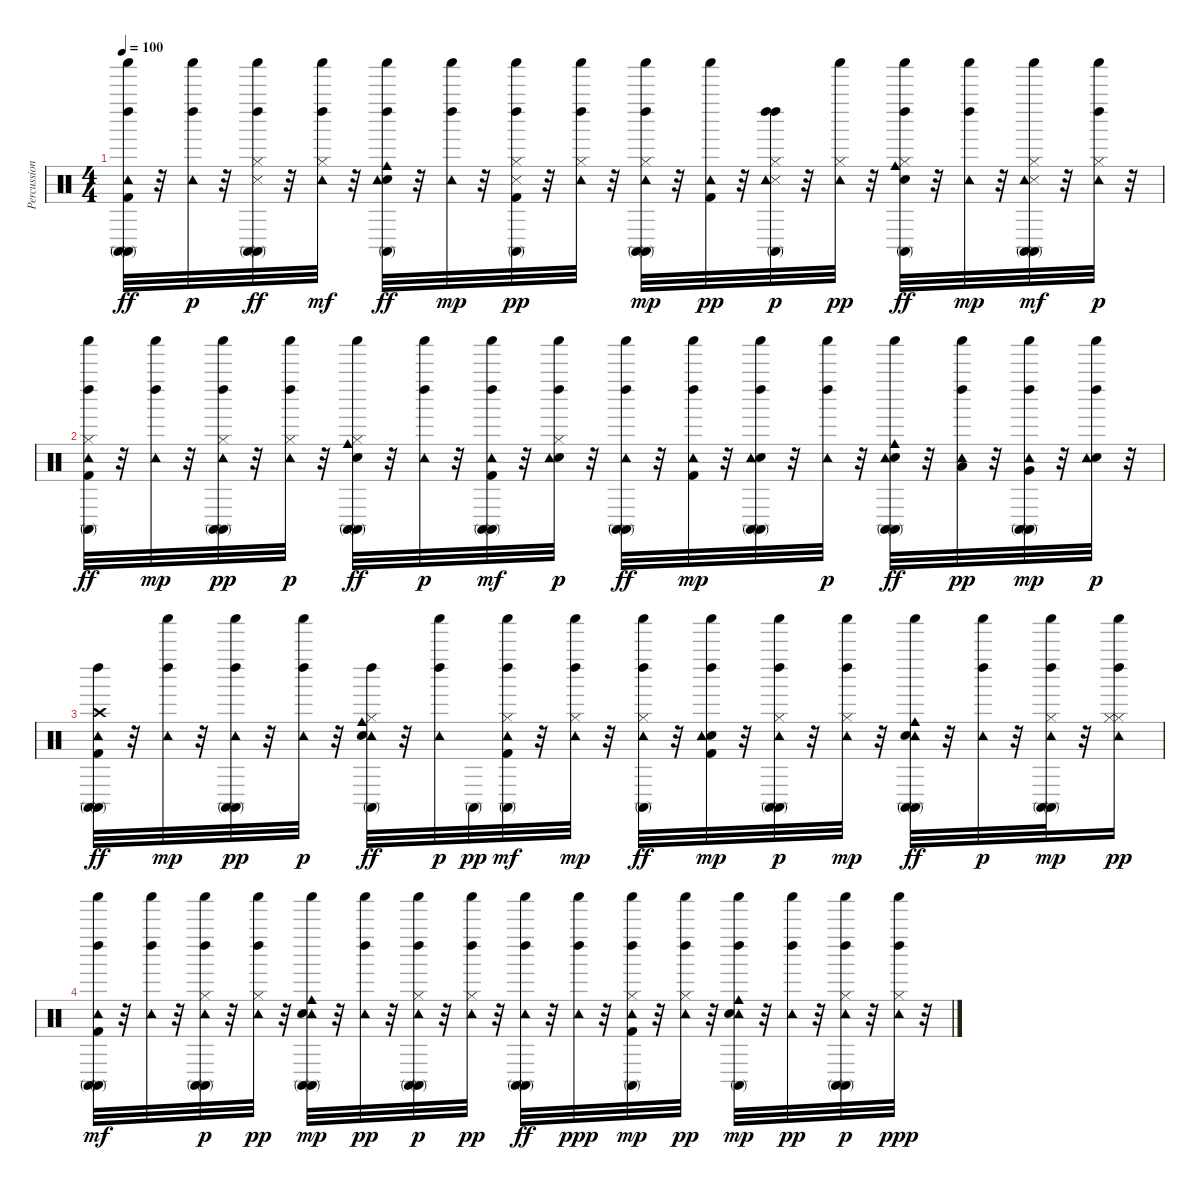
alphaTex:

\track ("Percussions" "Percussion") {instrument percussion}
\staff {score}
\articulation defaults
\ts (4 4)
\tempo 100
\clef neutral
\ks c
("Conga high (mute)" "Conga high (mute)" "Shaker (hit)" "Kick (hit) 2" "Tambourine (hit)" "Left Maraca (hit)").32{dy ff} r.32 ("Tambourine (hit)" "Shaker (hit)" "Left Maraca (hit)").32{dy p} r.32 ("Conga high (mute)" "Conga high (mute)" "Left Maraca (hit)" "Hi-Hat (closed)" "Shaker (hit)" "Snare (side stick) 3").32{dy ff} r.32 ("Hi-Hat (closed)" "Tambourine (hit)" "Shaker (hit)" "Left Maraca (hit)").32{dy mf} r.32 ("Electric Snare (hit)" "Cowbell medium (hit)" "Conga high (mute)" "Tambourine (hit)" "Shaker (hit)" "Left Maraca (hit)").32{dy ff} r.32 ("Shaker (hit)" "Tambourine (hit)" "Left Maraca (hit)").32{dy mp} r.32 ("Conga high (mute)" "Kick (hit) 2" "Snare (side stick) 3" "Hi-Hat (closed)" "Left Maraca (hit)" "Shaker (hit)").32{dy pp} r.32 ("Hi-Hat (closed)" "Tambourine (hit)" "Shaker (hit)" "Left Maraca (hit)").32 r.32 ("Hi-Hat (closed)" "Conga high (mute)" "Shaker (hit)" "Tambourine (hit)" "Left Maraca (hit)" "Conga high (mute)").32{dy mp} r.32 ("Kick (hit) 2" "Shaker (hit)" "Tambourine (hit)").32{dy pp} r.32 ("Left Maraca (hit)" "Snare (side stick) 3" "Hi-Hat (closed)" "Conga high (mute)" "Tambourine (hit)" "Left Maraca (hit)").32{dy p} r.32 ("Hi-Hat (closed)" "Tambourine (hit)" "Shaker (hit)").32{dy pp} r.32 ("Left Maraca (hit)" "Conga high (mute)" "Electric Snare (hit)" "Cowbell medium (hit)" "Hi-Hat (closed)" "Shaker (hit)").32{dy ff} r.32 ("Shaker (hit)" "Tambourine (hit)" "Left Maraca (hit)").32{dy mp} r.32 ("Conga high (mute)" "Snare (side stick) 3" "Conga high (mute)" "Hi-Hat (closed)" "Shaker (hit)" "Tambourine (hit)").32{dy mf} r.32 ("Hi-Hat (closed)" "Tambourine (hit)" "Shaker (hit)" "Left Maraca (hit)").32{dy p} r.32 |
("Conga high (mute)" "Hi-Hat (closed)" "Kick (hit) 2" "Shaker (hit)" "Tambourine (hit)" "Left Maraca (hit)").32{dy ff} r.32 ("Tambourine (hit)" "Shaker (hit)" "Left Maraca (hit)").32{dy mp} r.32 ("Conga high (mute)" "Tambourine (hit)" "Conga high (mute)" "Hi-Hat (closed)" "Shaker (hit)" "Left Maraca (hit)").32{dy pp} r.32 ("Hi-Hat (closed)" "Tambourine (hit)" "Shaker (hit)" "Left Maraca (hit)").32{dy p} r.32 ("Conga high (mute)" "Electric Snare (hit)" "Conga high (mute)" "Hi-Hat (closed)" "Cowbell medium (hit)" "Shaker (hit)").32{dy ff} r.32 ("Tambourine (hit)" "Shaker (hit)" "Left Maraca (hit)").32{dy p} r.32 ("Conga high (mute)" "Tambourine (hit)" "Left Maraca (hit)" "Conga high (mute)" "Shaker (hit)" "Kick (hit) 2").32{dy mf} r.32 ("Electric Snare (hit)" "Hi-Hat (closed)" "Tambourine (hit)" "Left Maraca (hit)" "Shaker (hit)").32{dy p} r.32 ("Conga high (mute)" "Conga high (mute)" "Tambourine (hit)" "Shaker (hit)" "Left Maraca (hit)").32{dy ff} r.32 ("Kick (hit) 2" "Tambourine (hit)" "Shaker (hit)" "Left Maraca (hit)").32{dy mp} r.32 ("Conga high (mute)" "Left Maraca (hit)" "Electric Snare (hit)" "Shaker (hit)" "Tambourine (hit)" "Conga high (mute)").32 r.32 ("Tambourine (hit)" "Left Maraca (hit)" "Shaker (hit)").32{dy p} r.32 ("Conga high (mute)" "Electric Snare (hit)" "Tambourine (hit)" "Cowbell medium (hit)" "Conga high (mute)" "Shaker (hit)").32{dy ff} r.32 ("Low Tom (hit)" "Tambourine (hit)" "Left Maraca (hit)" "Shaker (hit)").32{dy pp} r.32 ("Conga high (mute)" "Left Maraca (hit)" "Conga high (mute)" "Very Low Tom (hit)" "Tambourine (hit)" "Shaker (hit)").32{dy mp} r.32 ("Electric Snare (hit)" "Left Maraca (hit)" "Tambourine (hit)" "Shaker (hit)").32{dy p} r.32 |
("Conga high (mute)" "Conga high (mute)" "Tambourine (hit)" "Crash high (hit)" "Kick (hit) 2" "Left Maraca (hit)").32{dy ff} r.32 ("Shaker (hit)" "Tambourine (hit)" "Left Maraca (hit)").32{dy mp} r.32 ("Conga high (mute)" "Conga high (mute)" "Tambourine (hit)" "Shaker (hit)" "Left Maraca (hit)").32{dy pp} r.32 ("Tambourine (hit)" "Left Maraca (hit)" "Shaker (hit)").32{dy p} r.32 ("Conga high (mute)" "Tambourine (hit)" "Electric Snare (hit)" "Hi-Hat (closed)" "Cowbell medium (hit)" "Left Maraca (hit)").32{dy ff} r.32 ("Tambourine (hit)" "Left Maraca (hit)" "Shaker (hit)").32{dy p} "Conga high (mute)".32{dy pp} ("Conga high (mute)" "Tambourine (hit)" "Left Maraca (hit)" "Hi-Hat (closed)" "Shaker (hit)" "Kick (hit) 2").32{dy mf} r.32 ("Hi-Hat (closed)" "Tambourine (hit)" "Left Maraca (hit)" "Shaker (hit)").32{dy mp} r.32 ("Conga high (mute)" "Tambourine (hit)" "Hi-Hat (closed)" "Shaker (hit)" "Left Maraca (hit)").32{dy ff} r.32 ("Kick (hit) 2" "Electric Snare (hit)" "Tambourine (hit)" "Shaker (hit)" "Left Maraca (hit)").32{dy mp} r.32 ("Conga high (mute)" "Conga high (mute)" "Tambourine (hit)" "Hi-Hat (closed)" "Shaker (hit)" "Left Maraca (hit)").32{dy p} r.32 ("Hi-Hat (closed)" "Tambourine (hit)" "Shaker (hit)" "Left Maraca (hit)").32{dy mp} r.32 ("Conga high (mute)" "Tambourine (hit)" "Electric Snare (hit)" "Cowbell medium (hit)" "Conga high (mute)" "Shaker (hit)").32{dy ff} r.32 ("Tambourine (hit)" "Left Maraca (hit)" "Shaker (hit)").32{dy p} r.32 ("Conga high (mute)" "Tambourine (hit)" "Shaker (hit)" "Hi-Hat (closed)" "Left Maraca (hit)" "Conga high (mute)").32{dy mp} r.32 ("Hi-Hat (closed)" "Shaker (hit)" "Hi-Hat (closed)" "Tambourine (hit)" "Left Maraca (hit)").16{dy pp} |
("Conga high (mute)" "Tambourine (hit)" "Conga high (mute)" "Kick (hit) 2" "Shaker (hit)" "Left Maraca (hit)").32{dy mf} r.32 ("Tambourine (hit)" "Shaker (hit)" "Left Maraca (hit)").32 r.32 ("Conga high (mute)" "Tambourine (hit)" "Hi-Hat (closed)" "Shaker (hit)" "Conga high (mute)" "Left Maraca (hit)").32{dy p} r.32 ("Hi-Hat (closed)" "Tambourine (hit)" "Shaker (hit)" "Left Maraca (hit)").32{dy pp} r.32 ("Conga high (mute)" "Tambourine (hit)" "Electric Snare (hit)" "Cowbell medium (hit)" "Shaker (hit)" "Conga high (mute)").32{dy mp} r.32 ("Left Maraca (hit)" "Tambourine (hit)" "Shaker (hit)").32{dy pp} r.32 ("Conga high (mute)" "Tambourine (hit)" "Hi-Hat (closed)" "Left Maraca (hit)" "Shaker (hit)" "Conga high (mute)").32{dy p} r.32 ("Hi-Hat (closed)" "Tambourine (hit)" "Left Maraca (hit)" "Shaker (hit)").32{dy pp} r.32 ("Conga high (mute)" "Tambourine (hit)" "Conga high (mute)" "Left Maraca (hit)" "Shaker (hit)").32{dy ff} r.32 ("Tambourine (hit)" "Left Maraca (hit)" "Shaker (hit)").32{dy ppp} r.32 ("Conga high (mute)" "Kick (hit) 2" "Tambourine (hit)" "Hi-Hat (closed)" "Left Maraca (hit)" "Shaker (hit)").32{dy mp} r.32 ("Hi-Hat (closed)" "Tambourine (hit)" "Left Maraca (hit)" "Shaker (hit)").32{dy pp} r.32 ("Conga high (mute)" "Tambourine (hit)" "Cowbell medium (hit)" "Electric Snare (hit)" "Left Maraca (hit)" "Shaker (hit)").32{dy mp} r.32 ("Tambourine (hit)" "Left Maraca (hit)" "Shaker (hit)").32{dy pp} r.32 ("Conga high (mute)" "Conga high (mute)" "Tambourine (hit)" "Hi-Hat (closed)" "Left Maraca (hit)" "Shaker (hit)").32{dy p} r.32 ("Hi-Hat (closed)" "Tambourine (hit)" "Left Maraca (hit)" "Shaker (hit)").32{dy ppp} r.32
